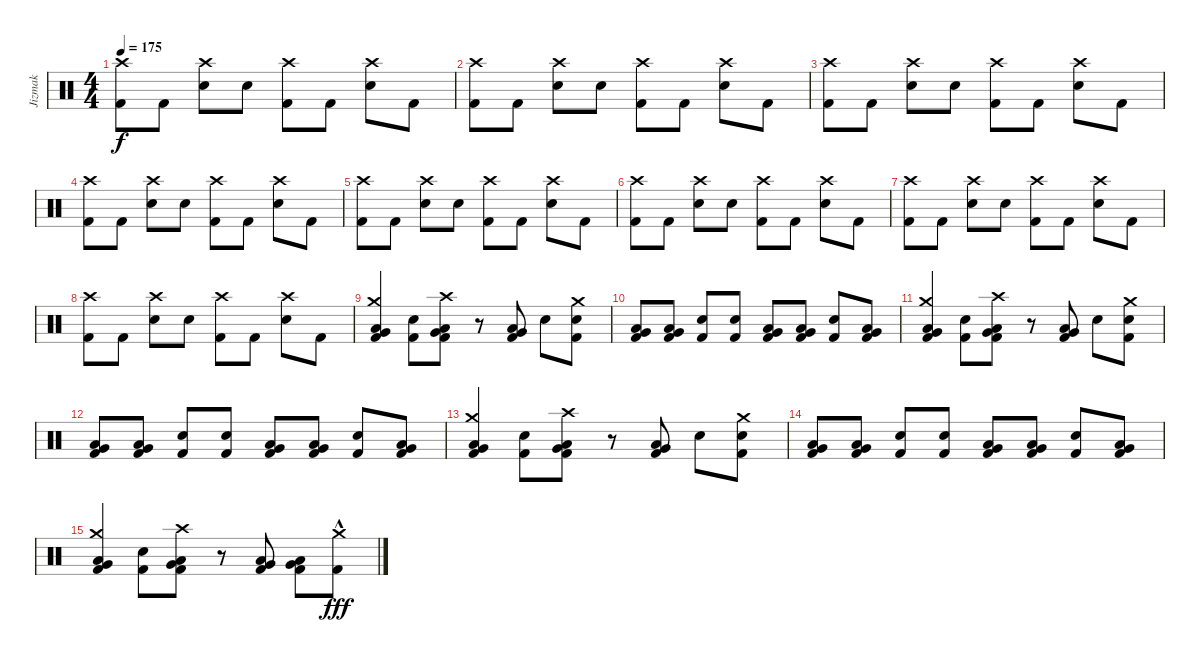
\track ("Jizmak" "Jizmak") {instrument percussion}
\staff {score}
\articulation defaults
\ts (4 4)
\tempo 175
\clef neutral
\ks c
("Crash high (hit)" "Kick (hit) 2").8{dy f} "Kick (hit) 2".8 ("Crash high (hit)" "Snare (hit) 2").8 "Snare (hit) 2".8 ("Crash high (hit)" "Kick (hit) 2").8 "Kick (hit) 2".8 ("Crash high (hit)" "Snare (hit) 2").8 "Kick (hit) 2".8 |
("Crash high (hit)" "Kick (hit) 2").8 "Kick (hit) 2".8 ("Crash high (hit)" "Snare (hit) 2").8 "Snare (hit) 2".8 ("Crash high (hit)" "Kick (hit) 2").8 "Kick (hit) 2".8 ("Crash high (hit)" "Snare (hit) 2").8 "Kick (hit) 2".8 |
("Crash high (hit)" "Kick (hit) 2").8 "Kick (hit) 2".8 ("Crash high (hit)" "Snare (hit) 2").8 "Snare (hit) 2".8 ("Crash high (hit)" "Kick (hit) 2").8 "Kick (hit) 2".8 ("Crash high (hit)" "Snare (hit) 2").8 "Kick (hit) 2".8 |
("Crash high (hit)" "Kick (hit) 2").8 "Kick (hit) 2".8 ("Crash high (hit)" "Snare (hit) 2").8 "Snare (hit) 2".8 ("Crash high (hit)" "Kick (hit) 2").8 "Kick (hit) 2".8 ("Crash high (hit)" "Snare (hit) 2").8 "Kick (hit) 2".8 |
("Crash high (hit)" "Kick (hit) 2").8 "Kick (hit) 2".8 ("Crash high (hit)" "Snare (hit) 2").8 "Snare (hit) 2".8 ("Crash high (hit)" "Kick (hit) 2").8 "Kick (hit) 2".8 ("Crash high (hit)" "Snare (hit) 2").8 "Kick (hit) 2".8 |
("Crash high (hit)" "Kick (hit) 2").8 "Kick (hit) 2".8 ("Crash high (hit)" "Snare (hit) 2").8 "Snare (hit) 2".8 ("Crash high (hit)" "Kick (hit) 2").8 "Kick (hit) 2".8 ("Crash high (hit)" "Snare (hit) 2").8 "Kick (hit) 2".8 |
("Crash high (hit)" "Kick (hit) 2").8 "Kick (hit) 2".8 ("Crash high (hit)" "Snare (hit) 2").8 "Snare (hit) 2".8 ("Crash high (hit)" "Kick (hit) 2").8 "Kick (hit) 2".8 ("Crash high (hit)" "Snare (hit) 2").8 "Kick (hit) 2".8 |
("Crash high (hit)" "Kick (hit) 2").8 "Kick (hit) 2".8 ("Crash high (hit)" "Snare (hit) 2").8 "Snare (hit) 2".8 ("Crash high (hit)" "Kick (hit) 2").8 "Kick (hit) 2".8 ("Crash high (hit)" "Snare (hit) 2").8 "Kick (hit) 2".8 |
("Crash medium (hit)" "Very Low Tom (hit)" "Low Floor Tom (hit)" "Kick (hit) 2").4 ("Snare (hit) 2" "Kick (hit) 2").8 ("Crash high (hit)" "Very Low Tom (hit)" "Low Floor Tom (hit)" "Kick (hit) 2").8 r.8 ("Low Floor Tom (hit)" "Very Low Tom (hit)" "Kick (hit) 2").8 "Snare (hit) 2".8 ("Crash medium (hit)" "Snare (hit) 2" "Kick (hit) 2").8 |
("Very Low Tom (hit)" "Low Floor Tom (hit)" "Kick (hit) 2").8 ("Very Low Tom (hit)" "Low Floor Tom (hit)" "Kick (hit) 2").8 ("Snare (hit) 2" "Kick (hit) 2").8 ("Snare (hit) 2" "Kick (hit) 2").8 ("Very Low Tom (hit)" "Low Floor Tom (hit)" "Kick (hit) 2").8 ("Very Low Tom (hit)" "Low Floor Tom (hit)" "Kick (hit) 2").8 ("Snare (hit) 2" "Kick (hit) 2").8 ("Very Low Tom (hit)" "Low Floor Tom (hit)" "Kick (hit) 2").8 |
("Crash medium (hit)" "Very Low Tom (hit)" "Low Floor Tom (hit)" "Kick (hit) 2").4 ("Snare (hit) 2" "Kick (hit) 2").8 ("Crash high (hit)" "Very Low Tom (hit)" "Low Floor Tom (hit)" "Kick (hit) 2").8 r.8 ("Low Floor Tom (hit)" "Very Low Tom (hit)" "Kick (hit) 2").8 "Snare (hit) 2".8 ("Crash medium (hit)" "Snare (hit) 2" "Kick (hit) 2").8 |
("Very Low Tom (hit)" "Low Floor Tom (hit)" "Kick (hit) 2").8 ("Very Low Tom (hit)" "Low Floor Tom (hit)" "Kick (hit) 2").8 ("Snare (hit) 2" "Kick (hit) 2").8 ("Snare (hit) 2" "Kick (hit) 2").8 ("Very Low Tom (hit)" "Low Floor Tom (hit)" "Kick (hit) 2").8 ("Very Low Tom (hit)" "Low Floor Tom (hit)" "Kick (hit) 2").8 ("Snare (hit) 2" "Kick (hit) 2").8 ("Very Low Tom (hit)" "Low Floor Tom (hit)" "Kick (hit) 2").8 |
("Crash medium (hit)" "Very Low Tom (hit)" "Low Floor Tom (hit)" "Kick (hit) 2").4 ("Snare (hit) 2" "Kick (hit) 2").8 ("Crash high (hit)" "Very Low Tom (hit)" "Low Floor Tom (hit)" "Kick (hit) 2").8 r.8 ("Low Floor Tom (hit)" "Very Low Tom (hit)" "Kick (hit) 2").8 "Snare (hit) 2".8 ("Crash medium (hit)" "Snare (hit) 2" "Kick (hit) 2").8 |
("Very Low Tom (hit)" "Low Floor Tom (hit)" "Kick (hit) 2").8 ("Very Low Tom (hit)" "Low Floor Tom (hit)" "Kick (hit) 2").8 ("Snare (hit) 2" "Kick (hit) 2").8 ("Snare (hit) 2" "Kick (hit) 2").8 ("Very Low Tom (hit)" "Low Floor Tom (hit)" "Kick (hit) 2").8 ("Very Low Tom (hit)" "Low Floor Tom (hit)" "Kick (hit) 2").8 ("Snare (hit) 2" "Kick (hit) 2").8 ("Very Low Tom (hit)" "Low Floor Tom (hit)" "Kick (hit) 2").8 |
("Crash medium (hit)" "Very Low Tom (hit)" "Low Floor Tom (hit)" "Kick (hit) 2").4 ("Snare (hit) 2" "Kick (hit) 2").8 ("Crash high (hit)" "Very Low Tom (hit)" "Low Floor Tom (hit)" "Kick (hit) 2").8 r.8 ("Very Low Tom (hit)" "Low Floor Tom (hit)" "Kick (hit) 2").8 ("Very Low Tom (hit)" "Low Floor Tom (hit)" "Kick (hit) 2").8 ("Crash medium (hit)"{hac} "Kick (hit) 2"{hac}).8{dy fff}
